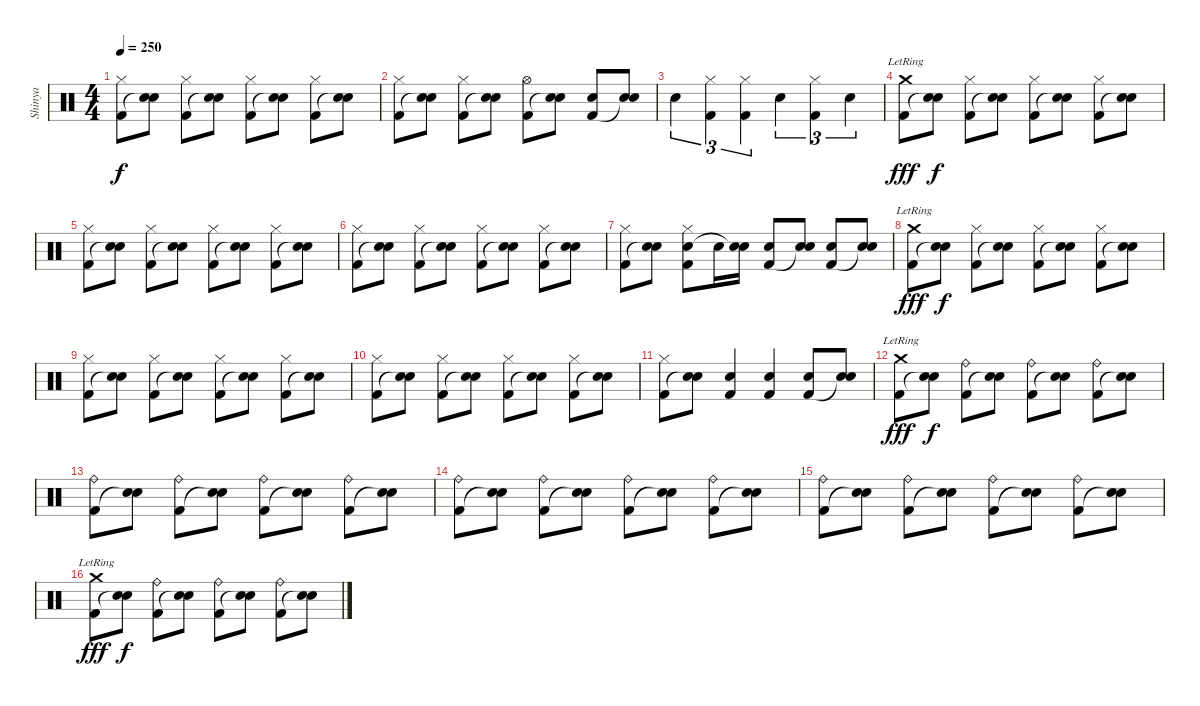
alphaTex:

\track ("Shinya" "Shinya") {instrument percussion}
\staff {score}
\articulation defaults
\ts (4 4)
\tempo 250
\clef neutral
\ks c
("Hi-Hat (closed)" "Kick (hit) 2").8{dy f} ("Electric Snare (hit)" "Snare (hit)"{t}).8 ("Hi-Hat (closed)" "Kick (hit) 2").8 ("Electric Snare (hit)" "Snare (hit)"{t}).8 ("Hi-Hat (closed)" "Kick (hit) 2").8 ("Electric Snare (hit)" "Snare (hit)"{t}).8 ("Hi-Hat (closed)" "Kick (hit) 2").8 ("Electric Snare (hit)" "Snare (hit)"{t}).8 |
("Hi-Hat (closed)" "Kick (hit) 2").8 ("Electric Snare (hit)" "Snare (hit)"{t}).8 ("Hi-Hat (closed)" "Kick (hit) 2").8 ("Electric Snare (hit)" "Snare (hit)"{t}).8 ("Hi-Hat (open)" "Kick (hit) 2").8 ("Electric Snare (hit)" "Snare (hit)"{t}).8 ("Electric Snare (hit)" "Kick (hit) 2").8 ("Electric Snare (hit)" "Snare (hit)"{t}).8 |
"Electric Snare (hit)".4{tu (3 2)} ("Hi-Hat (closed)" "Kick (hit) 2").4{tu (3 2)} ("Hi-Hat (closed)" "Kick (hit) 2").4{tu (3 2)} "Electric Snare (hit)".4{tu (3 2)} ("Hi-Hat (closed)" "Kick (hit) 2").4{tu (3 2)} "Electric Snare (hit)".4{tu (3 2)} |
("Crash medium (hit)"{lr} "Kick (hit) 2").8{dy fff} ("Electric Snare (hit)" "Snare (hit)"{t}).8{dy f} ("Hi-Hat (closed)" "Kick (hit) 2").8 ("Electric Snare (hit)" "Snare (hit)"{t}).8 ("Hi-Hat (closed)" "Kick (hit) 2").8 ("Electric Snare (hit)" "Snare (hit)"{t}).8 ("Hi-Hat (closed)" "Kick (hit) 2").8 ("Electric Snare (hit)" "Snare (hit)"{t}).8 |
("Hi-Hat (closed)" "Kick (hit) 2").8 ("Electric Snare (hit)" "Snare (hit)"{t}).8 ("Hi-Hat (closed)" "Kick (hit) 2").8 ("Electric Snare (hit)" "Snare (hit)"{t}).8 ("Hi-Hat (closed)" "Kick (hit) 2").8 ("Electric Snare (hit)" "Snare (hit)"{t}).8 ("Hi-Hat (closed)" "Kick (hit) 2").8 ("Electric Snare (hit)" "Snare (hit)"{t}).8 |
("Hi-Hat (closed)" "Kick (hit) 2").8 ("Electric Snare (hit)" "Snare (hit)"{t}).8 ("Hi-Hat (closed)" "Kick (hit) 2").8 ("Electric Snare (hit)" "Snare (hit)"{t}).8 ("Hi-Hat (closed)" "Kick (hit) 2").8 ("Electric Snare (hit)" "Snare (hit)"{t}).8 ("Hi-Hat (closed)" "Kick (hit) 2").8 ("Electric Snare (hit)" "Snare (hit)"{t}).8 |
("Hi-Hat (closed)" "Kick (hit) 2").8 ("Electric Snare (hit)" "Snare (hit)"{t}).8 ("Hi-Hat (closed)" "Electric Snare (hit)" "Kick (hit) 2").8 "Electric Snare (hit)".16 ("Electric Snare (hit)" "Snare (hit)"{t}).16 ("Electric Snare (hit)" "Kick (hit) 2").8 ("Electric Snare (hit)" "Snare (hit)"{t}).8 ("Electric Snare (hit)" "Kick (hit) 2").8 ("Electric Snare (hit)" "Snare (hit)"{t}).8 |
("Crash medium (hit)"{lr} "Kick (hit) 2").8{dy fff} ("Electric Snare (hit)" "Snare (hit)"{t}).8{dy f} ("Hi-Hat (closed)" "Kick (hit) 2").8 ("Electric Snare (hit)" "Snare (hit)"{t}).8 ("Hi-Hat (closed)" "Kick (hit) 2").8 ("Electric Snare (hit)" "Snare (hit)"{t}).8 ("Hi-Hat (closed)" "Kick (hit) 2").8 ("Electric Snare (hit)" "Snare (hit)"{t}).8 |
("Hi-Hat (closed)" "Kick (hit) 2").8 ("Electric Snare (hit)" "Snare (hit)"{t}).8 ("Hi-Hat (closed)" "Kick (hit) 2").8 ("Electric Snare (hit)" "Snare (hit)"{t}).8 ("Hi-Hat (closed)" "Kick (hit) 2").8 ("Electric Snare (hit)" "Snare (hit)"{t}).8 ("Hi-Hat (closed)" "Kick (hit) 2").8 ("Electric Snare (hit)" "Snare (hit)"{t}).8 |
("Hi-Hat (closed)" "Kick (hit) 2").8 ("Electric Snare (hit)" "Snare (hit)"{t}).8 ("Hi-Hat (closed)" "Kick (hit) 2").8 ("Electric Snare (hit)" "Snare (hit)"{t}).8 ("Hi-Hat (closed)" "Kick (hit) 2").8 ("Electric Snare (hit)" "Snare (hit)"{t}).8 ("Hi-Hat (closed)" "Kick (hit) 2").8 ("Electric Snare (hit)" "Snare (hit)"{t}).8 |
("Hi-Hat (closed)" "Kick (hit) 2").8 ("Electric Snare (hit)" "Snare (hit)"{t}).8 ("Electric Snare (hit)" "Kick (hit) 2").4 ("Electric Snare (hit)" "Kick (hit) 2").4 ("Electric Snare (hit)" "Kick (hit) 2").8 ("Electric Snare (hit)" "Snare (hit)"{t}).8 |
("Crash medium (hit)"{lr} "Kick (hit) 2").8{dy fff} ("Electric Snare (hit)" "Snare (hit)"{t}).8{dy f} ("Ride (bell)" "Kick (hit) 2").8 ("Electric Snare (hit)" "Snare (hit)"{t}).8 ("Ride (bell)" "Kick (hit) 2").8 ("Electric Snare (hit)" "Snare (hit)"{t}).8 ("Ride (bell)" "Kick (hit) 2").8 ("Electric Snare (hit)" "Snare (hit)"{t}).8 |
("Ride (bell)" "Kick (hit) 2").8 ("Electric Snare (hit)" "Snare (hit)"{t}).8 ("Ride (bell)" "Kick (hit) 2").8 ("Electric Snare (hit)" "Snare (hit)"{t}).8 ("Ride (bell)" "Kick (hit) 2").8 ("Electric Snare (hit)" "Snare (hit)"{t}).8 ("Ride (bell)" "Kick (hit) 2").8 ("Electric Snare (hit)" "Snare (hit)"{t}).8 |
("Ride (bell)" "Kick (hit) 2").8 ("Electric Snare (hit)" "Snare (hit)"{t}).8 ("Ride (bell)" "Kick (hit) 2").8 ("Electric Snare (hit)" "Snare (hit)"{t}).8 ("Ride (bell)" "Kick (hit) 2").8 ("Electric Snare (hit)" "Snare (hit)"{t}).8 ("Ride (bell)" "Kick (hit) 2").8 ("Electric Snare (hit)" "Snare (hit)"{t}).8 |
("Ride (bell)" "Kick (hit) 2").8 ("Electric Snare (hit)" "Snare (hit)"{t}).8 ("Ride (bell)" "Kick (hit) 2").8 ("Electric Snare (hit)" "Snare (hit)"{t}).8 ("Ride (bell)" "Kick (hit) 2").8 ("Electric Snare (hit)" "Snare (hit)"{t}).8 ("Ride (bell)" "Kick (hit) 2").8 ("Electric Snare (hit)" "Snare (hit)"{t}).8 |
("Crash medium (hit)"{lr} "Kick (hit) 2").8{dy fff} ("Electric Snare (hit)" "Snare (hit)"{t}).8{dy f} ("Ride (bell)" "Kick (hit) 2").8 ("Electric Snare (hit)" "Snare (hit)"{t}).8 ("Ride (bell)" "Kick (hit) 2").8 ("Electric Snare (hit)" "Snare (hit)"{t}).8 ("Ride (bell)" "Kick (hit) 2").8 ("Electric Snare (hit)" "Snare (hit)"{t}).8
